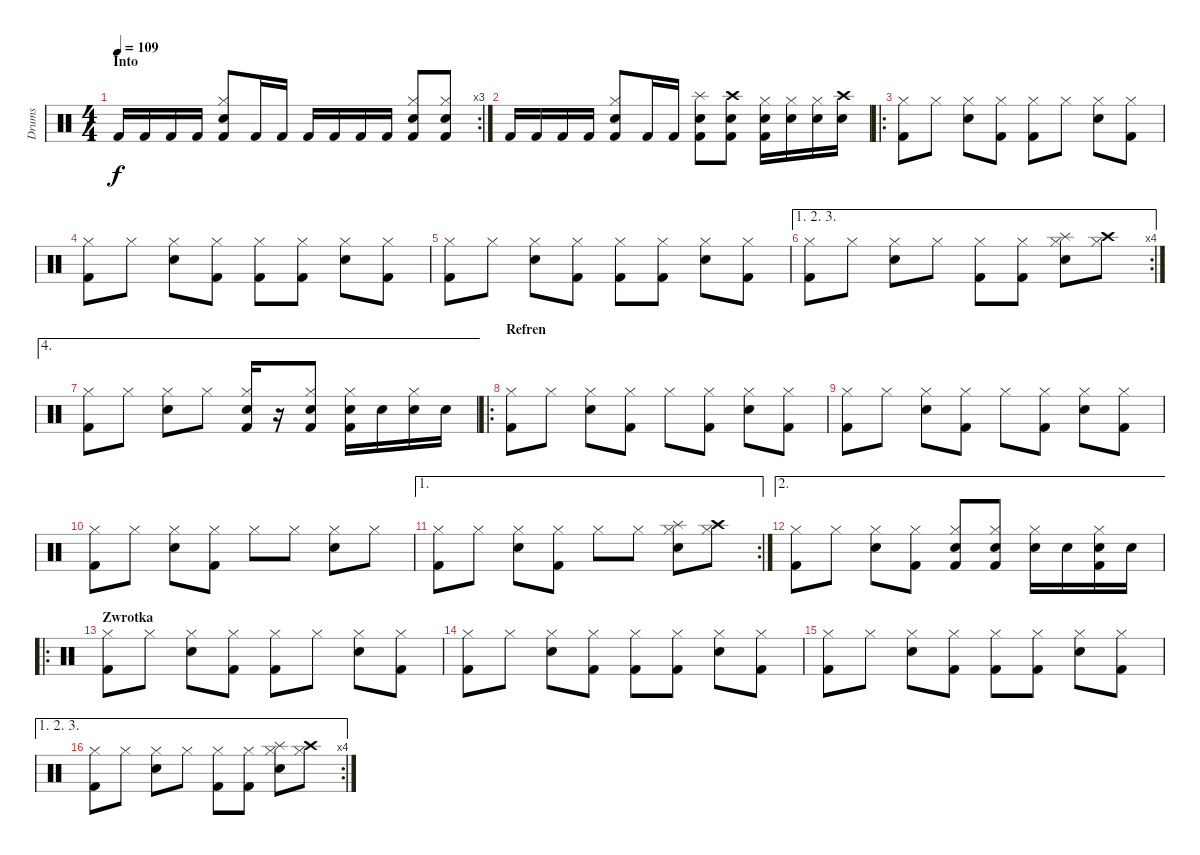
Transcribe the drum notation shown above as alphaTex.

\track ("Drums" "Drums") {instrument percussion}
\staff {score}
\articulation defaults
\rc 3
\ts (4 4)
\section ("" "Into")
\tempo 109
\clef neutral
\ks c "Kick (hit) 2".16{dy f} "Kick (hit) 2".16 "Kick (hit) 2".16 "Kick (hit) 2".16
("Hi-Hat (closed)" "Snare (hit) 2" "Kick (hit) 2").8 "Kick (hit) 2".16 "Kick (hit) 2".16 "Kick (hit) 2".16 "Kick (hit) 2".16 "Kick (hit) 2".16 "Kick (hit) 2".16 ("Hi-Hat (closed)" "Snare (hit) 2" "Kick (hit) 2").8 ("Hi-Hat (closed)" "Snare (hit) 2" "Kick (hit) 2").8 |
"Kick (hit) 2".16 "Kick (hit) 2".16 "Kick (hit) 2".16 "Kick (hit) 2".16 ("Hi-Hat (closed)" "Snare (hit) 2" "Kick (hit) 2").8 "Kick (hit) 2".16 "Kick (hit) 2".16 ("Splash (hit)" "Snare (hit) 2" "Kick (hit) 2").8 ("Crash high (hit)" "Snare (hit) 2" "Kick (hit) 2").8 ("Hi-Hat (closed)" "Snare (hit) 2" "Kick (hit) 2").16 ("Hi-Hat (closed)" "Snare (hit) 2").16 ("Hi-Hat (closed)" "Snare (hit) 2").16 ("Crash high (hit)" "Snare (hit) 2").16 |
\ro
("Hi-Hat (closed)" "Kick (hit) 2").8 "Hi-Hat (closed)".8 ("Hi-Hat (closed)" "Snare (hit) 2").8 ("Hi-Hat (closed)" "Kick (hit) 2").8 ("Hi-Hat (closed)" "Kick (hit) 2").8 "Hi-Hat (closed)".8 ("Hi-Hat (closed)" "Snare (hit) 2").8 ("Hi-Hat (closed)" "Kick (hit) 2").8 |
("Hi-Hat (closed)" "Kick (hit) 2").8 "Hi-Hat (closed)".8 ("Hi-Hat (closed)" "Snare (hit) 2").8 ("Hi-Hat (closed)" "Kick (hit) 2").8 ("Hi-Hat (closed)" "Kick (hit) 2").8 ("Hi-Hat (closed)" "Kick (hit) 2").8 ("Hi-Hat (closed)" "Snare (hit) 2").8 ("Hi-Hat (closed)" "Kick (hit) 2").8 |
("Hi-Hat (closed)" "Kick (hit) 2").8 "Hi-Hat (closed)".8 ("Hi-Hat (closed)" "Snare (hit) 2").8 ("Hi-Hat (closed)" "Kick (hit) 2").8 ("Hi-Hat (closed)" "Kick (hit) 2").8 ("Hi-Hat (closed)" "Kick (hit) 2").8 ("Hi-Hat (closed)" "Snare (hit) 2").8 ("Hi-Hat (closed)" "Kick (hit) 2").8 |
\ae (1 2 3)
\rc 4
("Hi-Hat (closed)" "Kick (hit) 2").8 "Hi-Hat (closed)".8 ("Hi-Hat (closed)" "Snare (hit) 2").8 "Hi-Hat (closed)".8 ("Hi-Hat (closed)" "Kick (hit) 2").8 ("Hi-Hat (closed)" "Kick (hit) 2").8 ("Splash (hit)" "Hi-Hat (closed)" "Snare (hit) 2").8 ("Crash high (hit)" "Hi-Hat (closed)").8 |
\ae 4
("Hi-Hat (closed)" "Kick (hit) 2").8 "Hi-Hat (closed)".8 ("Hi-Hat (closed)" "Snare (hit) 2").8 "Hi-Hat (closed)".8 ("Hi-Hat (closed)" "Snare (hit) 2" "Kick (hit) 2").16 r.16 ("Hi-Hat (closed)" "Snare (hit) 2" "Kick (hit) 2").8 ("Hi-Hat (closed)" "Snare (hit) 2" "Kick (hit) 2").16 "Snare (hit) 2".16 ("Hi-Hat (closed)" "Snare (hit) 2").16 "Snare (hit) 2".16 |
\ro
\section ("" "Refren")
("Hi-Hat (closed)" "Kick (hit) 2").8 "Hi-Hat (closed)".8 ("Hi-Hat (closed)" "Snare (hit) 2").8 ("Hi-Hat (closed)" "Kick (hit) 2").8 "Hi-Hat (closed)".8 ("Hi-Hat (closed)" "Kick (hit) 2").8 ("Hi-Hat (closed)" "Snare (hit) 2").8 ("Hi-Hat (closed)" "Kick (hit) 2").8 |
("Hi-Hat (closed)" "Kick (hit) 2").8 "Hi-Hat (closed)".8 ("Hi-Hat (closed)" "Snare (hit) 2").8 ("Hi-Hat (closed)" "Kick (hit) 2").8 "Hi-Hat (closed)".8 ("Hi-Hat (closed)" "Kick (hit) 2").8 ("Hi-Hat (closed)" "Snare (hit) 2").8 ("Hi-Hat (closed)" "Kick (hit) 2").8 |
("Hi-Hat (closed)" "Kick (hit) 2").8 "Hi-Hat (closed)".8 ("Hi-Hat (closed)" "Snare (hit) 2").8 ("Hi-Hat (closed)" "Kick (hit) 2").8 "Hi-Hat (closed)".8 "Hi-Hat (closed)".8 ("Hi-Hat (closed)" "Snare (hit) 2").8 "Hi-Hat (closed)".8 |
\ae 1
\rc 2
("Hi-Hat (closed)" "Kick (hit) 2").8 "Hi-Hat (closed)".8 ("Hi-Hat (closed)" "Snare (hit) 2").8 ("Hi-Hat (closed)" "Kick (hit) 2").8 "Hi-Hat (closed)".8 "Hi-Hat (closed)".8 ("Splash (hit)" "Hi-Hat (closed)" "Snare (hit) 2").8 ("Crash high (hit)" "Hi-Hat (closed)").8 |
\ae 2
("Hi-Hat (closed)" "Kick (hit) 2").8 "Hi-Hat (closed)".8 ("Hi-Hat (closed)" "Snare (hit) 2").8 ("Hi-Hat (closed)" "Kick (hit) 2").8 ("Hi-Hat (closed)" "Snare (hit) 2" "Kick (hit) 2").8 ("Hi-Hat (closed)" "Snare (hit) 2" "Kick (hit) 2").8 ("Hi-Hat (closed)" "Snare (hit) 2").16 "Snare (hit) 2".16 ("Hi-Hat (closed)" "Snare (hit) 2" "Kick (hit) 2").16 "Snare (hit) 2".16 |
\ro
\section ("" "Zwrotka")
("Hi-Hat (closed)" "Kick (hit) 2").8 "Hi-Hat (closed)".8 ("Hi-Hat (closed)" "Snare (hit) 2").8 ("Hi-Hat (closed)" "Kick (hit) 2").8 ("Hi-Hat (closed)" "Kick (hit) 2").8 "Hi-Hat (closed)".8 ("Hi-Hat (closed)" "Snare (hit) 2").8 ("Hi-Hat (closed)" "Kick (hit) 2").8 |
("Hi-Hat (closed)" "Kick (hit) 2").8 "Hi-Hat (closed)".8 ("Hi-Hat (closed)" "Snare (hit) 2").8 ("Hi-Hat (closed)" "Kick (hit) 2").8 ("Hi-Hat (closed)" "Kick (hit) 2").8 ("Hi-Hat (closed)" "Kick (hit) 2").8 ("Hi-Hat (closed)" "Snare (hit) 2").8 ("Hi-Hat (closed)" "Kick (hit) 2").8 |
("Hi-Hat (closed)" "Kick (hit) 2").8 "Hi-Hat (closed)".8 ("Hi-Hat (closed)" "Snare (hit) 2").8 ("Hi-Hat (closed)" "Kick (hit) 2").8 ("Hi-Hat (closed)" "Kick (hit) 2").8 ("Hi-Hat (closed)" "Kick (hit) 2").8 ("Hi-Hat (closed)" "Snare (hit) 2").8 ("Hi-Hat (closed)" "Kick (hit) 2").8 |
\ae (1 2 3)
\rc 4
("Hi-Hat (closed)" "Kick (hit) 2").8 "Hi-Hat (closed)".8 ("Hi-Hat (closed)" "Snare (hit) 2").8 "Hi-Hat (closed)".8 ("Hi-Hat (closed)" "Kick (hit) 2").8 ("Hi-Hat (closed)" "Kick (hit) 2").8 ("Splash (hit)" "Hi-Hat (closed)" "Snare (hit) 2").8 ("Crash high (hit)" "Hi-Hat (closed)").8
